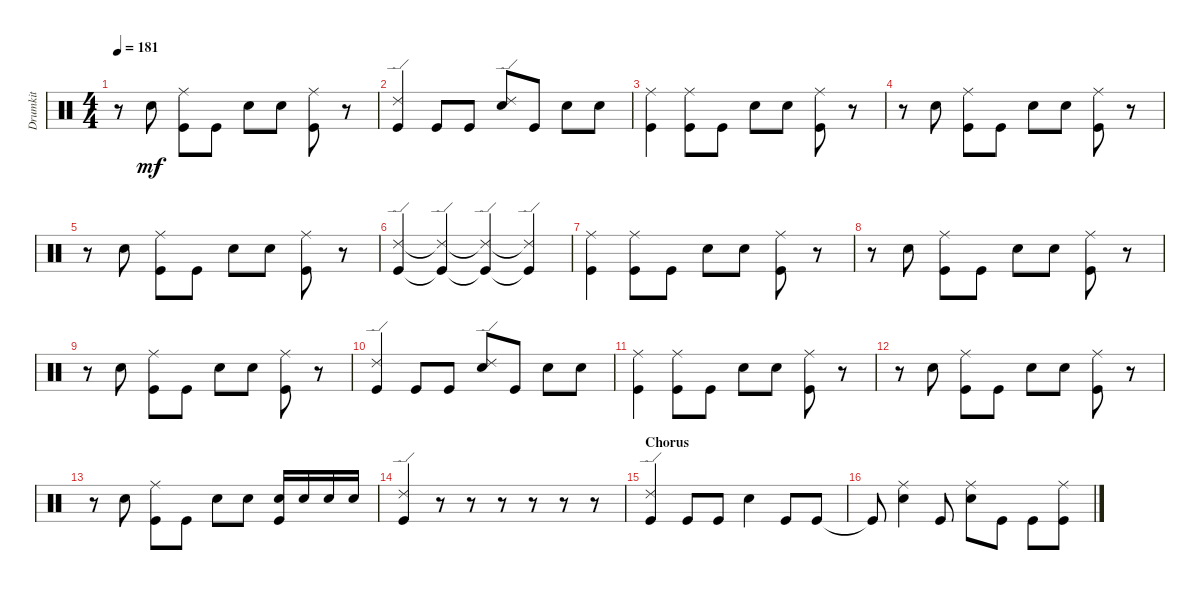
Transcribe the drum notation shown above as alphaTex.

\track ("Drumkit" "Drumkit") {instrument percussion}
\staff {score}
\articulation defaults
\ts (4 4)
\tempo 181
\clef neutral
\ks c
r.8{dy mf} "Snare (hit) 2".8 ("Kick (hit)" "Ride (middle)").8 "Kick (hit)".8 "Snare (hit) 2".8 "Snare (hit) 2".8 ("Kick (hit)" "Ride (middle)").8 r.8 |
("Kick (hit)" "Ride (edge) 2").4 "Kick (hit)".8 "Kick (hit)".8 ("Snare (hit) 2" "Ride (edge) 2").8 "Kick (hit)".8 "Snare (hit) 2".8 "Snare (hit) 2".8 |
("Kick (hit)" "Ride (middle)").4 ("Kick (hit)" "Ride (middle)").8 "Kick (hit)".8 "Snare (hit) 2".8 "Snare (hit) 2".8 ("Kick (hit)" "Ride (middle)").8 r.8 |
r.8 "Snare (hit) 2".8 ("Kick (hit)" "Ride (middle)").8 "Kick (hit)".8 "Snare (hit) 2".8 "Snare (hit) 2".8 ("Kick (hit)" "Ride (middle)").8 r.8 |
r.8 "Snare (hit) 2".8 ("Kick (hit)" "Ride (middle)").8 "Kick (hit)".8 "Snare (hit) 2".8 "Snare (hit) 2".8 ("Kick (hit)" "Ride (middle)").8 r.8 |
("Kick (hit)" "Ride (edge) 2").4 ("Kick (hit)"{t} "Ride (edge) 2"{t}).4 ("Kick (hit)"{t} "Ride (edge) 2"{t}).4 ("Kick (hit)"{t} "Ride (edge) 2"{t}).4 |
("Kick (hit)" "Ride (middle)").4 ("Kick (hit)" "Ride (middle)").8 "Kick (hit)".8 "Snare (hit) 2".8 "Snare (hit) 2".8 ("Kick (hit)" "Ride (middle)").8 r.8 |
r.8 "Snare (hit) 2".8 ("Kick (hit)" "Ride (middle)").8 "Kick (hit)".8 "Snare (hit) 2".8 "Snare (hit) 2".8 ("Kick (hit)" "Ride (middle)").8 r.8 |
r.8 "Snare (hit) 2".8 ("Kick (hit)" "Ride (middle)").8 "Kick (hit)".8 "Snare (hit) 2".8 "Snare (hit) 2".8 ("Kick (hit)" "Ride (middle)").8 r.8 |
("Kick (hit)" "Ride (edge) 2").4 "Kick (hit)".8 "Kick (hit)".8 ("Snare (hit) 2" "Ride (edge) 2").8 "Kick (hit)".8 "Snare (hit) 2".8 "Snare (hit) 2".8 |
("Kick (hit)" "Ride (middle)").4 ("Kick (hit)" "Ride (middle)").8 "Kick (hit)".8 "Snare (hit) 2".8 "Snare (hit) 2".8 ("Kick (hit)" "Ride (middle)").8 r.8 |
r.8 "Snare (hit) 2".8 ("Kick (hit)" "Ride (middle)").8 "Kick (hit)".8 "Snare (hit) 2".8 "Snare (hit) 2".8 ("Kick (hit)" "Ride (middle)").8 r.8 |
r.8 "Snare (hit) 2".8 ("Kick (hit)" "Ride (middle)").8 "Kick (hit)".8 "Snare (hit) 2".8 "Snare (hit) 2".8 ("Kick (hit)" "Snare (hit) 2").16 "Snare (hit) 2".16 "Snare (hit) 2".16 "Snare (hit) 2".16 |
("Kick (hit)" "Ride (edge) 2").4 r.8 r.8 r.8 r.8 r.8 r.8 |
\section ("" "Chorus")
("Kick (hit)" "Ride (edge) 2").4 "Kick (hit)".8 "Kick (hit)".8 "Snare (hit) 2".4 "Kick (hit)".8 "Kick (hit)".8 |
"Kick (hit)"{t}.8 ("Snare (hit) 2" "Ride (middle)").4 "Kick (hit)".8 ("Snare (hit) 2" "Ride (middle)").8 "Kick (hit)".8 "Kick (hit)".8 ("Ride (middle)" "Kick (hit)").8
